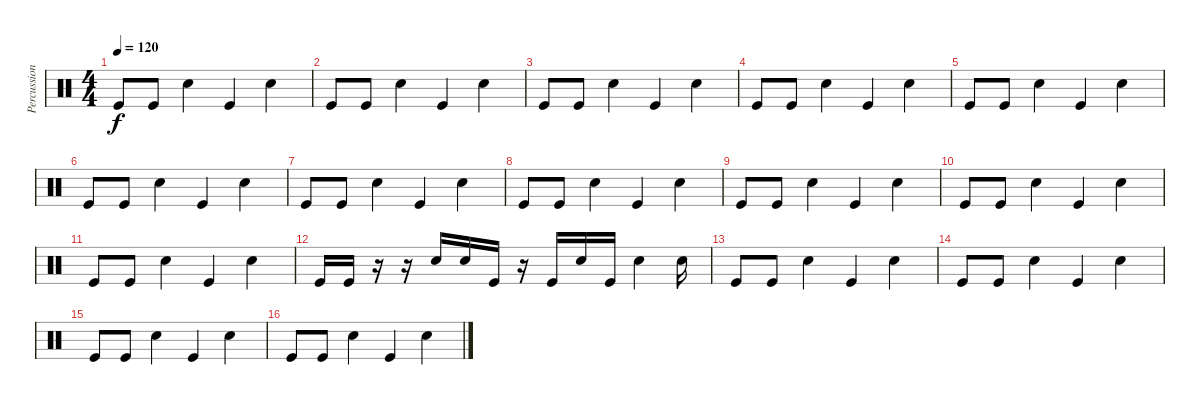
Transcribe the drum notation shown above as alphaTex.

\track ("Percussion" "Percussion") {instrument percussion}
\staff {score}
\articulation defaults
\ts (4 4)
\tempo 120
\clef neutral
\ks c "Kick (hit)".8{dy f} "Kick (hit)".8 "Electric Snare (hit)".4 "Kick (hit)".4 "Electric Snare (hit)".4
|
"Kick (hit)".8 "Kick (hit)".8 "Electric Snare (hit)".4 "Kick (hit)".4 "Electric Snare (hit)".4 |
"Kick (hit)".8 "Kick (hit)".8 "Electric Snare (hit)".4 "Kick (hit)".4 "Electric Snare (hit)".4 |
"Kick (hit)".8 "Kick (hit)".8 "Electric Snare (hit)".4 "Kick (hit)".4 "Electric Snare (hit)".4 |
"Kick (hit)".8 "Kick (hit)".8 "Electric Snare (hit)".4 "Kick (hit)".4 "Electric Snare (hit)".4 |
"Kick (hit)".8 "Kick (hit)".8 "Electric Snare (hit)".4 "Kick (hit)".4 "Electric Snare (hit)".4 |
"Kick (hit)".8 "Kick (hit)".8 "Electric Snare (hit)".4 "Kick (hit)".4 "Electric Snare (hit)".4 |
"Kick (hit)".8 "Kick (hit)".8 "Electric Snare (hit)".4 "Kick (hit)".4 "Electric Snare (hit)".4 |
"Kick (hit)".8 "Kick (hit)".8 "Electric Snare (hit)".4 "Kick (hit)".4 "Electric Snare (hit)".4 |
"Kick (hit)".8 "Kick (hit)".8 "Electric Snare (hit)".4 "Kick (hit)".4 "Electric Snare (hit)".4 |
"Kick (hit)".8 "Kick (hit)".8 "Electric Snare (hit)".4 "Kick (hit)".4 "Electric Snare (hit)".4 |
"Kick (hit)".16 "Kick (hit)".16 r.16 r.16 "Electric Snare (hit)".16 "Electric Snare (hit)".16 "Kick (hit)".16 r.16 "Kick (hit)".16 "Electric Snare (hit)".16 "Kick (hit)".16 "Electric Snare (hit)".4 "Electric Snare (hit)".16 |
"Kick (hit)".8 "Kick (hit)".8 "Electric Snare (hit)".4 "Kick (hit)".4 "Electric Snare (hit)".4 |
"Kick (hit)".8 "Kick (hit)".8 "Electric Snare (hit)".4 "Kick (hit)".4 "Electric Snare (hit)".4 |
"Kick (hit)".8 "Kick (hit)".8 "Electric Snare (hit)".4 "Kick (hit)".4 "Electric Snare (hit)".4 |
"Kick (hit)".8 "Kick (hit)".8 "Electric Snare (hit)".4 "Kick (hit)".4 "Electric Snare (hit)".4
